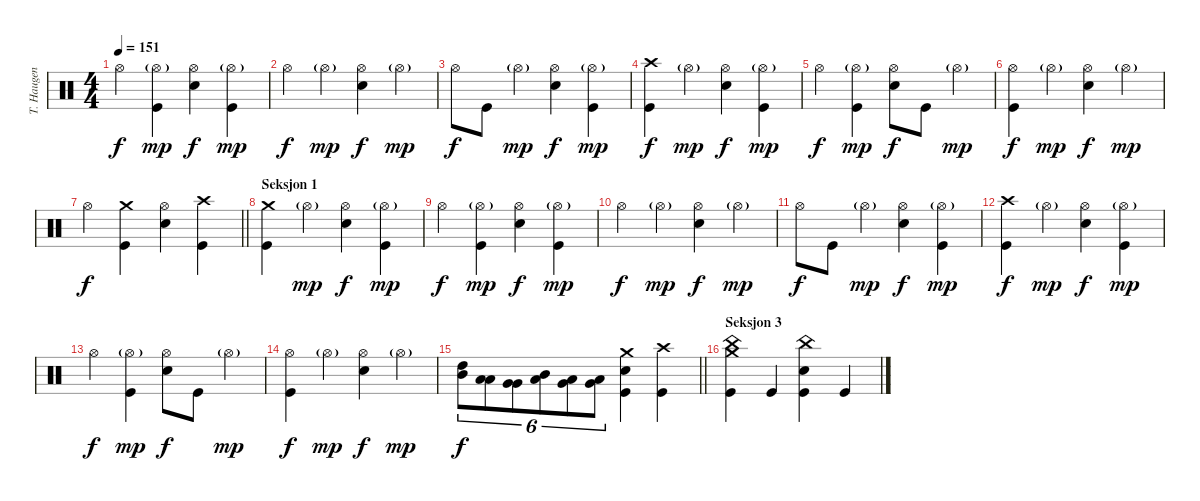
\track ("T. Haugen" "T. Haugen") {instrument percussion}
\staff {score}
\articulation defaults
\ts (4 4)
\tempo 151
\clef neutral
\ks c "Hi-Hat (open)".4{dy f}
("Hi-Hat (open)"{g} "Kick (hit)").4{dy mp} ("Hi-Hat (open)" "Electric Snare (hit)").4{dy f} ("Hi-Hat (open)"{g} "Kick (hit)").4{dy mp} |
"Hi-Hat (open)".4{dy f} "Hi-Hat (open)"{g}.4{dy mp} ("Hi-Hat (open)" "Electric Snare (hit)").4{dy f} "Hi-Hat (open)"{g}.4{dy mp} |
"Hi-Hat (open)".8{dy f} "Kick (hit)".8 "Hi-Hat (open)"{g}.4{dy mp} ("Hi-Hat (open)" "Electric Snare (hit)").4{dy f} ("Hi-Hat (open)"{g} "Kick (hit)").4{dy mp} |
("Crash high (hit)" "Kick (hit)").4{dy f} "Hi-Hat (open)"{g}.4{dy mp} ("Hi-Hat (open)" "Electric Snare (hit)").4{dy f} ("Hi-Hat (open)"{g} "Kick (hit)").4{dy mp} |
"Hi-Hat (open)".4{dy f} ("Hi-Hat (open)"{g} "Kick (hit)").4{dy mp} ("Hi-Hat (open)" "Electric Snare (hit)").8{dy f} "Kick (hit)".8 "Hi-Hat (open)"{g}.4{dy mp} |
("Hi-Hat (open)" "Kick (hit)").4{dy f} "Hi-Hat (open)"{g}.4{dy mp} ("Hi-Hat (open)" "Electric Snare (hit)").4{dy f} "Hi-Hat (open)"{g}.4{dy mp} |
\barLineRight lightlight "Hi-Hat (open)".4{dy f}
("Crash medium (hit)" "Kick (hit)").4 ("Hi-Hat (open)" "Electric Snare (hit)").4 ("Crash high (hit)" "Kick (hit)").4 |
\section ("" "Seksjon 1")
("Crash medium (hit)" "Kick (hit)").4 "Hi-Hat (open)"{g}.4{dy mp} ("Hi-Hat (open)" "Electric Snare (hit)").4{dy f} ("Hi-Hat (open)"{g} "Kick (hit)").4{dy mp} |
"Hi-Hat (open)".4{dy f} ("Hi-Hat (open)"{g} "Kick (hit)").4{dy mp} ("Hi-Hat (open)" "Electric Snare (hit)").4{dy f} ("Hi-Hat (open)"{g} "Kick (hit)").4{dy mp} |
"Hi-Hat (open)".4{dy f} "Hi-Hat (open)"{g}.4{dy mp} ("Hi-Hat (open)" "Electric Snare (hit)").4{dy f} "Hi-Hat (open)"{g}.4{dy mp} |
"Hi-Hat (open)".8{dy f} "Kick (hit)".8 "Hi-Hat (open)"{g}.4{dy mp} ("Hi-Hat (open)" "Electric Snare (hit)").4{dy f} ("Hi-Hat (open)"{g} "Kick (hit)").4{dy mp} |
("Crash high (hit)" "Kick (hit)").4{dy f} "Hi-Hat (open)"{g}.4{dy mp} ("Hi-Hat (open)" "Electric Snare (hit)").4{dy f} ("Hi-Hat (open)"{g} "Kick (hit)").4{dy mp} |
"Hi-Hat (open)".4{dy f} ("Hi-Hat (open)"{g} "Kick (hit)").4{dy mp} ("Hi-Hat (open)" "Electric Snare (hit)").8{dy f} "Kick (hit)".8 "Hi-Hat (open)"{g}.4{dy mp} |
("Hi-Hat (open)" "Kick (hit)").4{dy f} "Hi-Hat (open)"{g}.4{dy mp} ("Hi-Hat (open)" "Electric Snare (hit)").4{dy f} "Hi-Hat (open)"{g}.4{dy mp} |
\barLineRight lightlight
("Mid Tom (hit)" "High Tom (hit)").8{tu (6 4) dy f} ("Low Tom (hit)" "Low Tom (hit)").8{tu (6 4)} ("Very Low Tom (hit)" "Very Low Tom (hit)").8{tu (6 4)} ("Low Tom (hit)" "Mid Tom (hit)").8{tu (6 4)} ("Very Low Tom (hit)" "Low Tom (hit)").8{tu (6 4)} ("Low Floor Tom (hit)" "Very Low Tom (hit)").8{tu (6 4)} ("Crash medium (hit)" "Electric Snare (hit)" "Kick (hit)").4 ("Crash high (hit)" "Kick (hit)").4 |
\section ("" "Seksjon 3")
("Crash medium (hit)" "China (hit)" "Kick (hit)").4 "Kick (hit)".4 ("China (hit)" "Electric Snare (hit)" "Kick (hit)").4 "Kick (hit)".4
